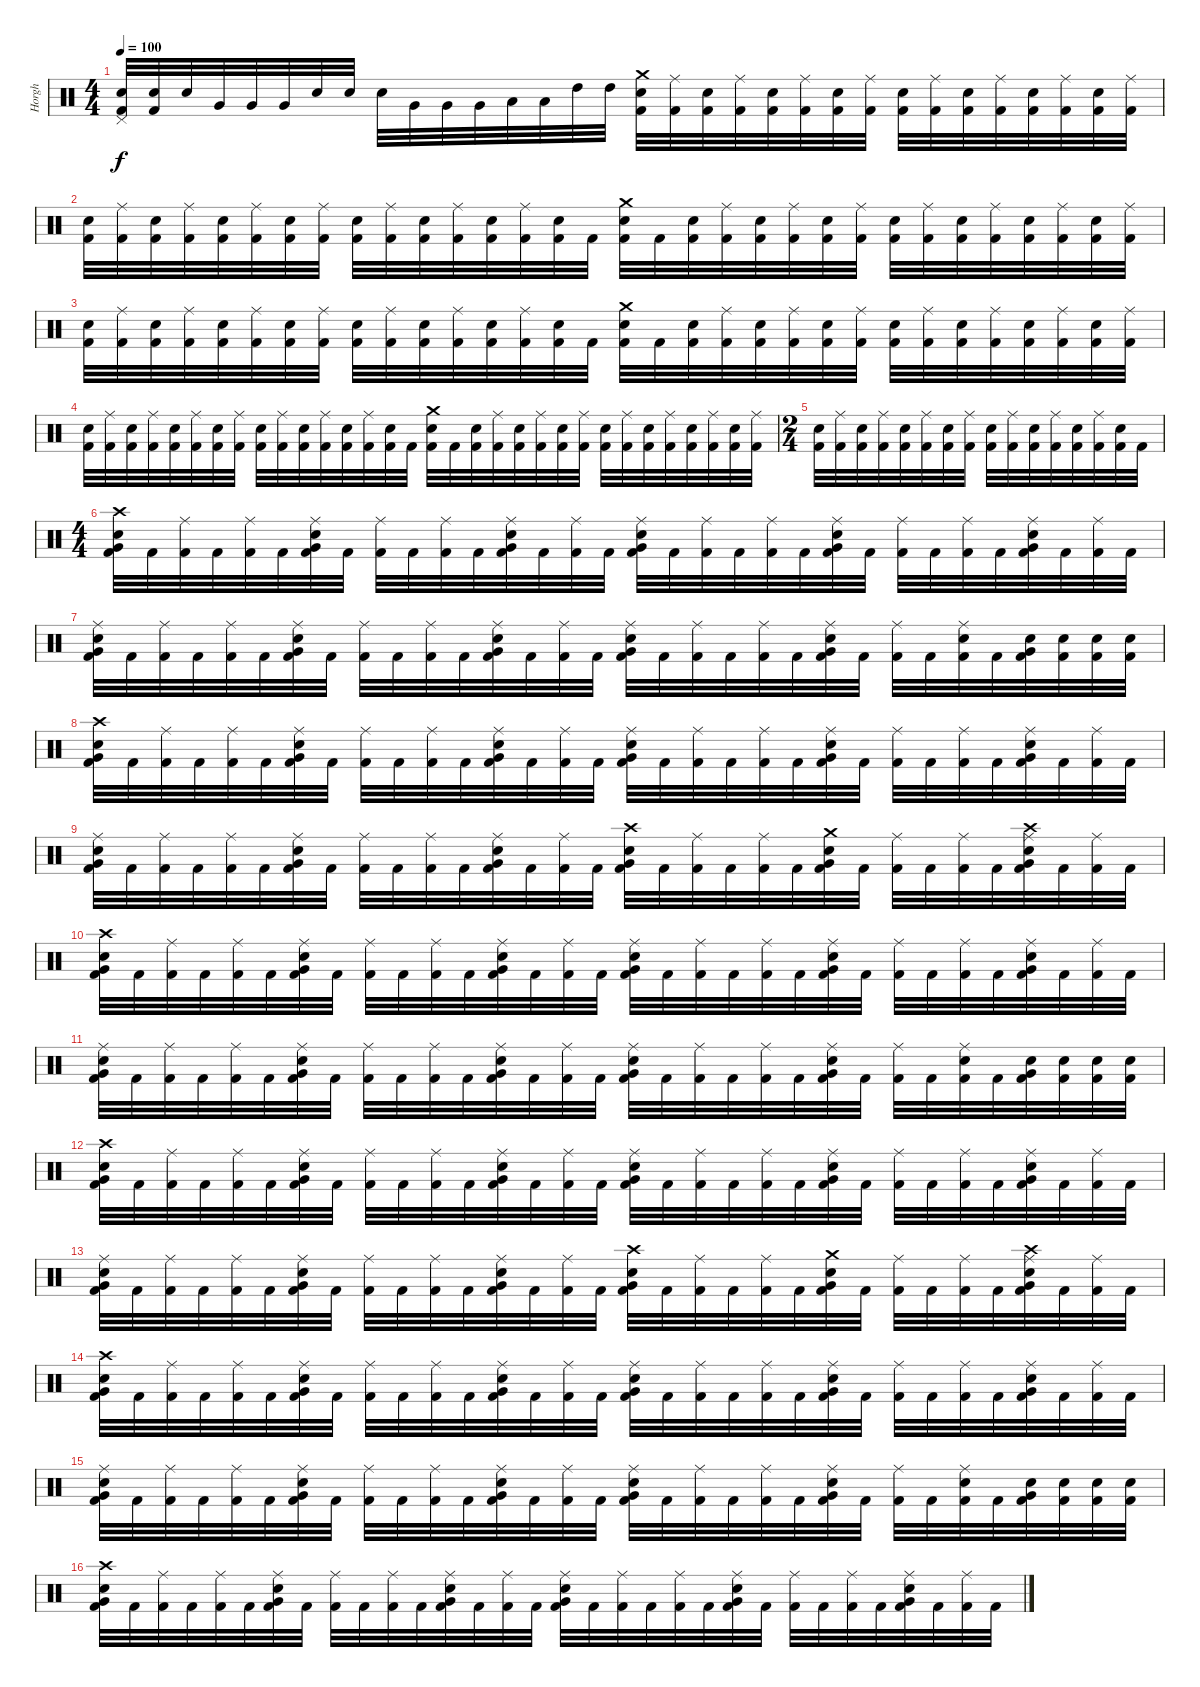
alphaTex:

\track ("Horgh" "Horgh") {instrument percussion}
\staff {score}
\articulation defaults
\ts (4 4)
\tempo 100
\clef neutral
\ks c
("Pedal Hi-Hat (hit)" "Electric Snare (hit)" "Kick (hit) 2").32{dy f} ("Electric Snare (hit)" "Kick (hit) 2").32 "Electric Snare (hit)".32 "Very Low Tom (hit)".32 "Very Low Tom (hit)".32 "Very Low Tom (hit)".32 "Electric Snare (hit)".32 "Electric Snare (hit)".32 "Electric Snare (hit)".32 "Very Low Tom (hit)".32 "Very Low Tom (hit)".32 "Very Low Tom (hit)".32 "Low Tom (hit)".32 "Low Tom (hit)".32 "High Tom (hit)".32 "High Tom (hit)".32 ("Crash medium (hit)" "Electric Snare (hit)" "Kick (hit) 2").32 ("Ride (middle)" "Kick (hit) 2").32 ("Electric Snare (hit)" "Kick (hit) 2").32 ("Ride (middle)" "Kick (hit) 2").32 ("Electric Snare (hit)" "Kick (hit) 2").32 ("Ride (middle)" "Kick (hit) 2").32 ("Electric Snare (hit)" "Kick (hit) 2").32 ("Ride (middle)" "Kick (hit) 2").32 ("Electric Snare (hit)" "Kick (hit) 2").32 ("Ride (middle)" "Kick (hit) 2").32 ("Electric Snare (hit)" "Kick (hit) 2").32 ("Ride (middle)" "Kick (hit) 2").32 ("Electric Snare (hit)" "Kick (hit) 2").32 ("Ride (middle)" "Kick (hit) 2").32 ("Electric Snare (hit)" "Kick (hit) 2").32 ("Ride (middle)" "Kick (hit) 2").32 |
("Electric Snare (hit)" "Kick (hit) 2").32 ("Ride (middle)" "Kick (hit) 2").32 ("Electric Snare (hit)" "Kick (hit) 2").32 ("Ride (middle)" "Kick (hit) 2").32 ("Electric Snare (hit)" "Kick (hit) 2").32 ("Ride (middle)" "Kick (hit) 2").32 ("Electric Snare (hit)" "Kick (hit) 2").32 ("Ride (middle)" "Kick (hit) 2").32 ("Electric Snare (hit)" "Kick (hit) 2").32 ("Ride (middle)" "Kick (hit) 2").32 ("Electric Snare (hit)" "Kick (hit) 2").32 ("Ride (middle)" "Kick (hit) 2").32 ("Electric Snare (hit)" "Kick (hit) 2").32 ("Ride (middle)" "Kick (hit) 2").32 ("Electric Snare (hit)" "Kick (hit) 2").32 "Kick (hit) 2".32 ("Crash medium (hit)" "Electric Snare (hit)" "Kick (hit) 2").32 "Kick (hit) 2".32 ("Electric Snare (hit)" "Kick (hit) 2").32 ("Ride (middle)" "Kick (hit) 2").32 ("Electric Snare (hit)" "Kick (hit) 2").32 ("Ride (middle)" "Kick (hit) 2").32 ("Electric Snare (hit)" "Kick (hit) 2").32 ("Ride (middle)" "Kick (hit) 2").32 ("Electric Snare (hit)" "Kick (hit) 2").32 ("Ride (middle)" "Kick (hit) 2").32 ("Electric Snare (hit)" "Kick (hit) 2").32 ("Ride (middle)" "Kick (hit) 2").32 ("Electric Snare (hit)" "Kick (hit) 2").32 ("Ride (middle)" "Kick (hit) 2").32 ("Electric Snare (hit)" "Kick (hit) 2").32 ("Ride (middle)" "Kick (hit) 2").32 |
("Electric Snare (hit)" "Kick (hit) 2").32 ("Ride (middle)" "Kick (hit) 2").32 ("Electric Snare (hit)" "Kick (hit) 2").32 ("Ride (middle)" "Kick (hit) 2").32 ("Electric Snare (hit)" "Kick (hit) 2").32 ("Ride (middle)" "Kick (hit) 2").32 ("Electric Snare (hit)" "Kick (hit) 2").32 ("Ride (middle)" "Kick (hit) 2").32 ("Electric Snare (hit)" "Kick (hit) 2").32 ("Ride (middle)" "Kick (hit) 2").32 ("Electric Snare (hit)" "Kick (hit) 2").32 ("Ride (middle)" "Kick (hit) 2").32 ("Electric Snare (hit)" "Kick (hit) 2").32 ("Ride (middle)" "Kick (hit) 2").32 ("Electric Snare (hit)" "Kick (hit) 2").32 "Kick (hit) 2".32 ("Crash medium (hit)" "Electric Snare (hit)" "Kick (hit) 2").32 "Kick (hit) 2".32 ("Electric Snare (hit)" "Kick (hit) 2").32 ("Ride (middle)" "Kick (hit) 2").32 ("Electric Snare (hit)" "Kick (hit) 2").32 ("Ride (middle)" "Kick (hit) 2").32 ("Electric Snare (hit)" "Kick (hit) 2").32 ("Ride (middle)" "Kick (hit) 2").32 ("Electric Snare (hit)" "Kick (hit) 2").32 ("Ride (middle)" "Kick (hit) 2").32 ("Electric Snare (hit)" "Kick (hit) 2").32 ("Ride (middle)" "Kick (hit) 2").32 ("Electric Snare (hit)" "Kick (hit) 2").32 ("Ride (middle)" "Kick (hit) 2").32 ("Electric Snare (hit)" "Kick (hit) 2").32 ("Ride (middle)" "Kick (hit) 2").32 |
("Electric Snare (hit)" "Kick (hit) 2").32 ("Ride (middle)" "Kick (hit) 2").32 ("Electric Snare (hit)" "Kick (hit) 2").32 ("Ride (middle)" "Kick (hit) 2").32 ("Electric Snare (hit)" "Kick (hit) 2").32 ("Ride (middle)" "Kick (hit) 2").32 ("Electric Snare (hit)" "Kick (hit) 2").32 ("Ride (middle)" "Kick (hit) 2").32 ("Electric Snare (hit)" "Kick (hit) 2").32 ("Ride (middle)" "Kick (hit) 2").32 ("Electric Snare (hit)" "Kick (hit) 2").32 ("Ride (middle)" "Kick (hit) 2").32 ("Electric Snare (hit)" "Kick (hit) 2").32 ("Ride (middle)" "Kick (hit) 2").32 ("Electric Snare (hit)" "Kick (hit) 2").32 "Kick (hit) 2".32 ("Crash medium (hit)" "Electric Snare (hit)" "Kick (hit) 2").32 "Kick (hit) 2".32 ("Electric Snare (hit)" "Kick (hit) 2").32 ("Ride (middle)" "Kick (hit) 2").32 ("Electric Snare (hit)" "Kick (hit) 2").32 ("Ride (middle)" "Kick (hit) 2").32 ("Electric Snare (hit)" "Kick (hit) 2").32 ("Ride (middle)" "Kick (hit) 2").32 ("Electric Snare (hit)" "Kick (hit) 2").32 ("Ride (middle)" "Kick (hit) 2").32 ("Electric Snare (hit)" "Kick (hit) 2").32 ("Ride (middle)" "Kick (hit) 2").32 ("Electric Snare (hit)" "Kick (hit) 2").32 ("Ride (middle)" "Kick (hit) 2").32 ("Electric Snare (hit)" "Kick (hit) 2").32 ("Ride (middle)" "Kick (hit) 2").32 |
\ts (2 4)
("Electric Snare (hit)" "Kick (hit) 2").32 ("Ride (middle)" "Kick (hit) 2").32 ("Electric Snare (hit)" "Kick (hit) 2").32 ("Ride (middle)" "Kick (hit) 2").32 ("Electric Snare (hit)" "Kick (hit) 2").32 ("Ride (middle)" "Kick (hit) 2").32 ("Electric Snare (hit)" "Kick (hit) 2").32 ("Ride (middle)" "Kick (hit) 2").32 ("Electric Snare (hit)" "Kick (hit) 2").32 ("Ride (middle)" "Kick (hit) 2").32 ("Electric Snare (hit)" "Kick (hit) 2").32 ("Ride (middle)" "Kick (hit) 2").32 ("Electric Snare (hit)" "Kick (hit) 2").32 ("Ride (middle)" "Kick (hit) 2").32 ("Electric Snare (hit)" "Kick (hit) 2").32 "Kick (hit) 2".32 |
\ts (4 4)
("Crash high (hit)" "Electric Snare (hit)" "Very Low Tom (hit)" "Kick (hit) 2").32 "Kick (hit) 2".32 ("Ride (middle)" "Kick (hit) 2").32 "Kick (hit) 2".32 ("Ride (middle)" "Kick (hit) 2").32 "Kick (hit) 2".32 ("Ride (middle)" "Electric Snare (hit)" "Very Low Tom (hit)" "Kick (hit) 2").32 "Kick (hit) 2".32 ("Ride (middle)" "Kick (hit) 2").32 "Kick (hit) 2".32 ("Ride (middle)" "Kick (hit) 2").32 "Kick (hit) 2".32 ("Ride (middle)" "Electric Snare (hit)" "Very Low Tom (hit)" "Kick (hit) 2").32 "Kick (hit) 2".32 ("Ride (middle)" "Kick (hit) 2").32 "Kick (hit) 2".32 ("Ride (middle)" "Electric Snare (hit)" "Very Low Tom (hit)" "Kick (hit) 2").32 "Kick (hit) 2".32 ("Ride (middle)" "Kick (hit) 2").32 "Kick (hit) 2".32 ("Ride (middle)" "Kick (hit) 2").32 "Kick (hit) 2".32 ("Ride (middle)" "Electric Snare (hit)" "Very Low Tom (hit)" "Kick (hit) 2").32 "Kick (hit) 2".32 ("Ride (middle)" "Kick (hit) 2").32 "Kick (hit) 2".32 ("Ride (middle)" "Kick (hit) 2").32 "Kick (hit) 2".32 ("Ride (middle)" "Electric Snare (hit)" "Very Low Tom (hit)" "Kick (hit) 2").32 "Kick (hit) 2".32 ("Ride (middle)" "Kick (hit) 2").32 "Kick (hit) 2".32 |
("Ride (middle)" "Electric Snare (hit)" "Very Low Tom (hit)" "Kick (hit) 2").32 "Kick (hit) 2".32 ("Ride (middle)" "Kick (hit) 2").32 "Kick (hit) 2".32 ("Ride (middle)" "Kick (hit) 2").32 "Kick (hit) 2".32 ("Ride (middle)" "Electric Snare (hit)" "Very Low Tom (hit)" "Kick (hit) 2").32 "Kick (hit) 2".32 ("Ride (middle)" "Kick (hit) 2").32 "Kick (hit) 2".32 ("Ride (middle)" "Kick (hit) 2").32 "Kick (hit) 2".32 ("Ride (middle)" "Electric Snare (hit)" "Very Low Tom (hit)" "Kick (hit) 2").32 "Kick (hit) 2".32 ("Ride (middle)" "Kick (hit) 2").32 "Kick (hit) 2".32 ("Ride (middle)" "Electric Snare (hit)" "Very Low Tom (hit)" "Kick (hit) 2").32 "Kick (hit) 2".32 ("Ride (middle)" "Kick (hit) 2").32 "Kick (hit) 2".32 ("Ride (middle)" "Kick (hit) 2").32 "Kick (hit) 2".32 ("Ride (middle)" "Electric Snare (hit)" "Very Low Tom (hit)" "Kick (hit) 2").32 "Kick (hit) 2".32 ("Ride (middle)" "Kick (hit) 2").32 "Kick (hit) 2".32 ("Ride (middle)" "Electric Snare (hit)" "Kick (hit) 2").32 "Kick (hit) 2".32 ("Electric Snare (hit)" "Very Low Tom (hit)" "Kick (hit) 2").32 ("Electric Snare (hit)" "Kick (hit) 2").32 ("Electric Snare (hit)" "Kick (hit) 2").32 ("Electric Snare (hit)" "Kick (hit) 2").32 |
("Crash high (hit)" "Electric Snare (hit)" "Very Low Tom (hit)" "Kick (hit) 2").32 "Kick (hit) 2".32 ("Ride (middle)" "Kick (hit) 2").32 "Kick (hit) 2".32 ("Ride (middle)" "Kick (hit) 2").32 "Kick (hit) 2".32 ("Ride (middle)" "Electric Snare (hit)" "Very Low Tom (hit)" "Kick (hit) 2").32 "Kick (hit) 2".32 ("Ride (middle)" "Kick (hit) 2").32 "Kick (hit) 2".32 ("Ride (middle)" "Kick (hit) 2").32 "Kick (hit) 2".32 ("Ride (middle)" "Electric Snare (hit)" "Very Low Tom (hit)" "Kick (hit) 2").32 "Kick (hit) 2".32 ("Ride (middle)" "Kick (hit) 2").32 "Kick (hit) 2".32 ("Ride (middle)" "Electric Snare (hit)" "Very Low Tom (hit)" "Kick (hit) 2").32 "Kick (hit) 2".32 ("Ride (middle)" "Kick (hit) 2").32 "Kick (hit) 2".32 ("Ride (middle)" "Kick (hit) 2").32 "Kick (hit) 2".32 ("Ride (middle)" "Electric Snare (hit)" "Very Low Tom (hit)" "Kick (hit) 2").32 "Kick (hit) 2".32 ("Ride (middle)" "Kick (hit) 2").32 "Kick (hit) 2".32 ("Ride (middle)" "Kick (hit) 2").32 "Kick (hit) 2".32 ("Ride (middle)" "Electric Snare (hit)" "Very Low Tom (hit)" "Kick (hit) 2").32 "Kick (hit) 2".32 ("Ride (middle)" "Kick (hit) 2").32 "Kick (hit) 2".32 |
("Ride (middle)" "Electric Snare (hit)" "Very Low Tom (hit)" "Kick (hit) 2").32 "Kick (hit) 2".32 ("Ride (middle)" "Kick (hit) 2").32 "Kick (hit) 2".32 ("Ride (middle)" "Kick (hit) 2").32 "Kick (hit) 2".32 ("Ride (middle)" "Electric Snare (hit)" "Very Low Tom (hit)" "Kick (hit) 2").32 "Kick (hit) 2".32 ("Ride (middle)" "Kick (hit) 2").32 "Kick (hit) 2".32 ("Ride (middle)" "Kick (hit) 2").32 "Kick (hit) 2".32 ("Ride (middle)" "Electric Snare (hit)" "Very Low Tom (hit)" "Kick (hit) 2").32 "Kick (hit) 2".32 ("Ride (middle)" "Kick (hit) 2").32 "Kick (hit) 2".32 ("Crash high (hit)" "Electric Snare (hit)" "Very Low Tom (hit)" "Kick (hit) 2").32 "Kick (hit) 2".32 ("Ride (middle)" "Kick (hit) 2").32 "Kick (hit) 2".32 ("Ride (middle)" "Kick (hit) 2").32 "Kick (hit) 2".32 ("Crash medium (hit)" "Electric Snare (hit)" "Very Low Tom (hit)" "Kick (hit) 2").32 "Kick (hit) 2".32 ("Ride (middle)" "Kick (hit) 2").32 "Kick (hit) 2".32 ("Ride (middle)" "Kick (hit) 2").32 "Kick (hit) 2".32 ("Crash high (hit)" "Ride (middle)" "Electric Snare (hit)" "Very Low Tom (hit)" "Kick (hit) 2").32 "Kick (hit) 2".32 ("Ride (middle)" "Kick (hit) 2").32 "Kick (hit) 2".32 |
("Crash high (hit)" "Electric Snare (hit)" "Very Low Tom (hit)" "Kick (hit) 2").32 "Kick (hit) 2".32 ("Ride (middle)" "Kick (hit) 2").32 "Kick (hit) 2".32 ("Ride (middle)" "Kick (hit) 2").32 "Kick (hit) 2".32 ("Ride (middle)" "Electric Snare (hit)" "Very Low Tom (hit)" "Kick (hit) 2").32 "Kick (hit) 2".32 ("Ride (middle)" "Kick (hit) 2").32 "Kick (hit) 2".32 ("Ride (middle)" "Kick (hit) 2").32 "Kick (hit) 2".32 ("Ride (middle)" "Electric Snare (hit)" "Very Low Tom (hit)" "Kick (hit) 2").32 "Kick (hit) 2".32 ("Ride (middle)" "Kick (hit) 2").32 "Kick (hit) 2".32 ("Ride (middle)" "Electric Snare (hit)" "Very Low Tom (hit)" "Kick (hit) 2").32 "Kick (hit) 2".32 ("Ride (middle)" "Kick (hit) 2").32 "Kick (hit) 2".32 ("Ride (middle)" "Kick (hit) 2").32 "Kick (hit) 2".32 ("Ride (middle)" "Electric Snare (hit)" "Very Low Tom (hit)" "Kick (hit) 2").32 "Kick (hit) 2".32 ("Ride (middle)" "Kick (hit) 2").32 "Kick (hit) 2".32 ("Ride (middle)" "Kick (hit) 2").32 "Kick (hit) 2".32 ("Ride (middle)" "Electric Snare (hit)" "Very Low Tom (hit)" "Kick (hit) 2").32 "Kick (hit) 2".32 ("Ride (middle)" "Kick (hit) 2").32 "Kick (hit) 2".32 |
("Ride (middle)" "Electric Snare (hit)" "Very Low Tom (hit)" "Kick (hit) 2").32 "Kick (hit) 2".32 ("Ride (middle)" "Kick (hit) 2").32 "Kick (hit) 2".32 ("Ride (middle)" "Kick (hit) 2").32 "Kick (hit) 2".32 ("Ride (middle)" "Electric Snare (hit)" "Very Low Tom (hit)" "Kick (hit) 2").32 "Kick (hit) 2".32 ("Ride (middle)" "Kick (hit) 2").32 "Kick (hit) 2".32 ("Ride (middle)" "Kick (hit) 2").32 "Kick (hit) 2".32 ("Ride (middle)" "Electric Snare (hit)" "Very Low Tom (hit)" "Kick (hit) 2").32 "Kick (hit) 2".32 ("Ride (middle)" "Kick (hit) 2").32 "Kick (hit) 2".32 ("Ride (middle)" "Electric Snare (hit)" "Very Low Tom (hit)" "Kick (hit) 2").32 "Kick (hit) 2".32 ("Ride (middle)" "Kick (hit) 2").32 "Kick (hit) 2".32 ("Ride (middle)" "Kick (hit) 2").32 "Kick (hit) 2".32 ("Ride (middle)" "Electric Snare (hit)" "Very Low Tom (hit)" "Kick (hit) 2").32 "Kick (hit) 2".32 ("Ride (middle)" "Kick (hit) 2").32 "Kick (hit) 2".32 ("Ride (middle)" "Electric Snare (hit)" "Kick (hit) 2").32 "Kick (hit) 2".32 ("Electric Snare (hit)" "Very Low Tom (hit)" "Kick (hit) 2").32 ("Electric Snare (hit)" "Kick (hit) 2").32 ("Electric Snare (hit)" "Kick (hit) 2").32 ("Electric Snare (hit)" "Kick (hit) 2").32 |
("Crash high (hit)" "Electric Snare (hit)" "Very Low Tom (hit)" "Kick (hit) 2").32 "Kick (hit) 2".32 ("Ride (middle)" "Kick (hit) 2").32 "Kick (hit) 2".32 ("Ride (middle)" "Kick (hit) 2").32 "Kick (hit) 2".32 ("Ride (middle)" "Electric Snare (hit)" "Very Low Tom (hit)" "Kick (hit) 2").32 "Kick (hit) 2".32 ("Ride (middle)" "Kick (hit) 2").32 "Kick (hit) 2".32 ("Ride (middle)" "Kick (hit) 2").32 "Kick (hit) 2".32 ("Ride (middle)" "Electric Snare (hit)" "Very Low Tom (hit)" "Kick (hit) 2").32 "Kick (hit) 2".32 ("Ride (middle)" "Kick (hit) 2").32 "Kick (hit) 2".32 ("Ride (middle)" "Electric Snare (hit)" "Very Low Tom (hit)" "Kick (hit) 2").32 "Kick (hit) 2".32 ("Ride (middle)" "Kick (hit) 2").32 "Kick (hit) 2".32 ("Ride (middle)" "Kick (hit) 2").32 "Kick (hit) 2".32 ("Ride (middle)" "Electric Snare (hit)" "Very Low Tom (hit)" "Kick (hit) 2").32 "Kick (hit) 2".32 ("Ride (middle)" "Kick (hit) 2").32 "Kick (hit) 2".32 ("Ride (middle)" "Kick (hit) 2").32 "Kick (hit) 2".32 ("Ride (middle)" "Electric Snare (hit)" "Very Low Tom (hit)" "Kick (hit) 2").32 "Kick (hit) 2".32 ("Ride (middle)" "Kick (hit) 2").32 "Kick (hit) 2".32 |
("Ride (middle)" "Electric Snare (hit)" "Very Low Tom (hit)" "Kick (hit) 2").32 "Kick (hit) 2".32 ("Ride (middle)" "Kick (hit) 2").32 "Kick (hit) 2".32 ("Ride (middle)" "Kick (hit) 2").32 "Kick (hit) 2".32 ("Ride (middle)" "Electric Snare (hit)" "Very Low Tom (hit)" "Kick (hit) 2").32 "Kick (hit) 2".32 ("Ride (middle)" "Kick (hit) 2").32 "Kick (hit) 2".32 ("Ride (middle)" "Kick (hit) 2").32 "Kick (hit) 2".32 ("Ride (middle)" "Electric Snare (hit)" "Very Low Tom (hit)" "Kick (hit) 2").32 "Kick (hit) 2".32 ("Ride (middle)" "Kick (hit) 2").32 "Kick (hit) 2".32 ("Crash high (hit)" "Electric Snare (hit)" "Very Low Tom (hit)" "Kick (hit) 2").32 "Kick (hit) 2".32 ("Ride (middle)" "Kick (hit) 2").32 "Kick (hit) 2".32 ("Ride (middle)" "Kick (hit) 2").32 "Kick (hit) 2".32 ("Crash medium (hit)" "Electric Snare (hit)" "Very Low Tom (hit)" "Kick (hit) 2").32 "Kick (hit) 2".32 ("Ride (middle)" "Kick (hit) 2").32 "Kick (hit) 2".32 ("Ride (middle)" "Kick (hit) 2").32 "Kick (hit) 2".32 ("Crash high (hit)" "Ride (middle)" "Electric Snare (hit)" "Very Low Tom (hit)" "Kick (hit) 2").32 "Kick (hit) 2".32 ("Ride (middle)" "Kick (hit) 2").32 "Kick (hit) 2".32 |
("Crash high (hit)" "Electric Snare (hit)" "Very Low Tom (hit)" "Kick (hit) 2").32 "Kick (hit) 2".32 ("Ride (middle)" "Kick (hit) 2").32 "Kick (hit) 2".32 ("Ride (middle)" "Kick (hit) 2").32 "Kick (hit) 2".32 ("Ride (middle)" "Electric Snare (hit)" "Very Low Tom (hit)" "Kick (hit) 2").32 "Kick (hit) 2".32 ("Ride (middle)" "Kick (hit) 2").32 "Kick (hit) 2".32 ("Ride (middle)" "Kick (hit) 2").32 "Kick (hit) 2".32 ("Ride (middle)" "Electric Snare (hit)" "Very Low Tom (hit)" "Kick (hit) 2").32 "Kick (hit) 2".32 ("Ride (middle)" "Kick (hit) 2").32 "Kick (hit) 2".32 ("Ride (middle)" "Electric Snare (hit)" "Very Low Tom (hit)" "Kick (hit) 2").32 "Kick (hit) 2".32 ("Ride (middle)" "Kick (hit) 2").32 "Kick (hit) 2".32 ("Ride (middle)" "Kick (hit) 2").32 "Kick (hit) 2".32 ("Ride (middle)" "Electric Snare (hit)" "Very Low Tom (hit)" "Kick (hit) 2").32 "Kick (hit) 2".32 ("Ride (middle)" "Kick (hit) 2").32 "Kick (hit) 2".32 ("Ride (middle)" "Kick (hit) 2").32 "Kick (hit) 2".32 ("Ride (middle)" "Electric Snare (hit)" "Very Low Tom (hit)" "Kick (hit) 2").32 "Kick (hit) 2".32 ("Ride (middle)" "Kick (hit) 2").32 "Kick (hit) 2".32 |
("Ride (middle)" "Electric Snare (hit)" "Very Low Tom (hit)" "Kick (hit) 2").32 "Kick (hit) 2".32 ("Ride (middle)" "Kick (hit) 2").32 "Kick (hit) 2".32 ("Ride (middle)" "Kick (hit) 2").32 "Kick (hit) 2".32 ("Ride (middle)" "Electric Snare (hit)" "Very Low Tom (hit)" "Kick (hit) 2").32 "Kick (hit) 2".32 ("Ride (middle)" "Kick (hit) 2").32 "Kick (hit) 2".32 ("Ride (middle)" "Kick (hit) 2").32 "Kick (hit) 2".32 ("Ride (middle)" "Electric Snare (hit)" "Very Low Tom (hit)" "Kick (hit) 2").32 "Kick (hit) 2".32 ("Ride (middle)" "Kick (hit) 2").32 "Kick (hit) 2".32 ("Ride (middle)" "Electric Snare (hit)" "Very Low Tom (hit)" "Kick (hit) 2").32 "Kick (hit) 2".32 ("Ride (middle)" "Kick (hit) 2").32 "Kick (hit) 2".32 ("Ride (middle)" "Kick (hit) 2").32 "Kick (hit) 2".32 ("Ride (middle)" "Electric Snare (hit)" "Very Low Tom (hit)" "Kick (hit) 2").32 "Kick (hit) 2".32 ("Ride (middle)" "Kick (hit) 2").32 "Kick (hit) 2".32 ("Ride (middle)" "Electric Snare (hit)" "Kick (hit) 2").32 "Kick (hit) 2".32 ("Electric Snare (hit)" "Very Low Tom (hit)" "Kick (hit) 2").32 ("Electric Snare (hit)" "Kick (hit) 2").32 ("Electric Snare (hit)" "Kick (hit) 2").32 ("Electric Snare (hit)" "Kick (hit) 2").32 |
("Crash high (hit)" "Electric Snare (hit)" "Very Low Tom (hit)" "Kick (hit) 2").32 "Kick (hit) 2".32 ("Ride (middle)" "Kick (hit) 2").32 "Kick (hit) 2".32 ("Ride (middle)" "Kick (hit) 2").32 "Kick (hit) 2".32 ("Ride (middle)" "Electric Snare (hit)" "Very Low Tom (hit)" "Kick (hit) 2").32 "Kick (hit) 2".32 ("Ride (middle)" "Kick (hit) 2").32 "Kick (hit) 2".32 ("Ride (middle)" "Kick (hit) 2").32 "Kick (hit) 2".32 ("Ride (middle)" "Electric Snare (hit)" "Very Low Tom (hit)" "Kick (hit) 2").32 "Kick (hit) 2".32 ("Ride (middle)" "Kick (hit) 2").32 "Kick (hit) 2".32 ("Ride (middle)" "Electric Snare (hit)" "Very Low Tom (hit)" "Kick (hit) 2").32 "Kick (hit) 2".32 ("Ride (middle)" "Kick (hit) 2").32 "Kick (hit) 2".32 ("Ride (middle)" "Kick (hit) 2").32 "Kick (hit) 2".32 ("Ride (middle)" "Electric Snare (hit)" "Very Low Tom (hit)" "Kick (hit) 2").32 "Kick (hit) 2".32 ("Ride (middle)" "Kick (hit) 2").32 "Kick (hit) 2".32 ("Ride (middle)" "Kick (hit) 2").32 "Kick (hit) 2".32 ("Ride (middle)" "Electric Snare (hit)" "Very Low Tom (hit)" "Kick (hit) 2").32 "Kick (hit) 2".32 ("Ride (middle)" "Kick (hit) 2").32 "Kick (hit) 2".32
